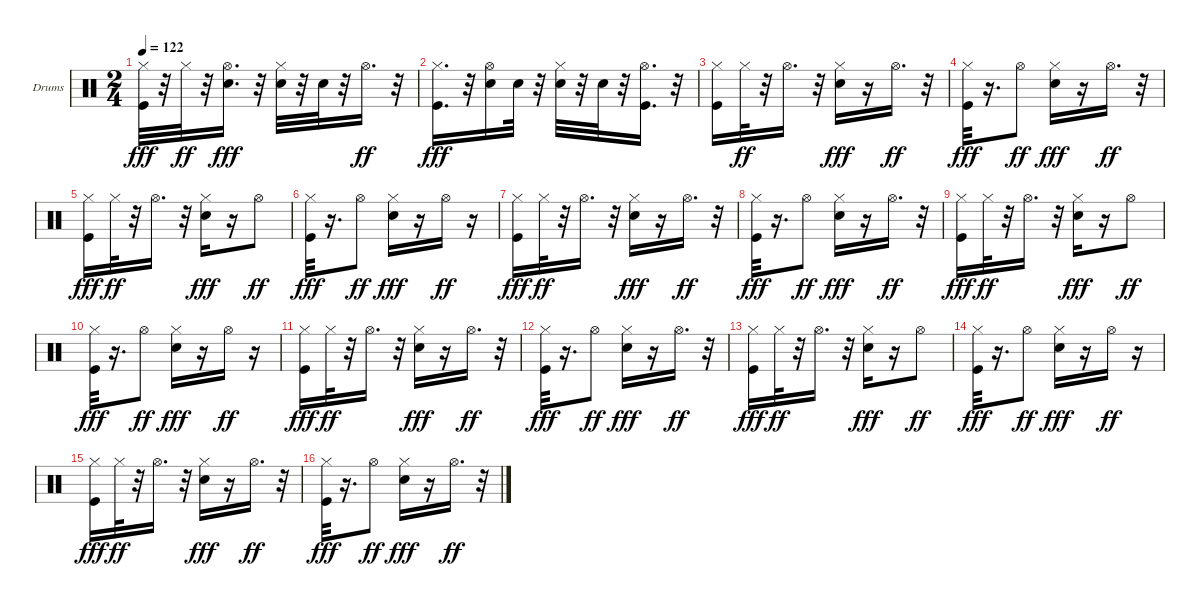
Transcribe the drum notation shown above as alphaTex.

\bracketExtendMode groupsimilarinstruments
\firstSystemTrackNameOrientation horizontal
\otherSystemsTrackNameOrientation horizontal
\track ("Ударные" "Drums") {instrument percussion}
\staff {score}
\articulation defaults
\ts (2 4)
\tempo 122
\clef neutral
\ks c
("Kick (hit)" "Hi-Hat (closed)").32{dy fff} r.32 "Hi-Hat (closed)".32{dy ff} r.32 ("Snare (hit) 2" "Hi-Hat (open)").16{d dy fff} r.32 ("Snare (hit) 2" "Hi-Hat (closed)").32 r.32 "Snare (hit) 2".32 r.32 "Hi-Hat (open)".16{d dy ff} r.32 |
("Kick (hit)" "Hi-Hat (closed)").16{d dy fff} r.32 ("Snare (hit) 2" "Hi-Hat (open)").16 "Snare (hit) 2".32 r.32 ("Snare (hit) 2" "Hi-Hat (closed)").32 r.32 "Snare (hit) 2".32 r.32 ("Kick (hit)" "Hi-Hat (open)").16{d} r.32 |
("Kick (hit)" "Hi-Hat (closed)").16 "Hi-Hat (closed)".32{dy ff} r.32 "Hi-Hat (open)".16{d} r.32 ("Snare (hit) 2" "Hi-Hat (closed)").16{dy fff} r.16 "Hi-Hat (open)".16{d dy ff} r.32 |
("Kick (hit)" "Hi-Hat (closed)").32{dy fff} r.16{d} "Hi-Hat (open)".8{dy ff} ("Snare (hit) 2" "Hi-Hat (closed)").16{dy fff} r.16 "Hi-Hat (open)".16{d dy ff} r.32 |
("Kick (hit)" "Hi-Hat (closed)").16{dy fff} "Hi-Hat (closed)".32{dy ff} r.32 "Hi-Hat (open)".16{d} r.32 ("Snare (hit) 2" "Hi-Hat (closed)").16{dy fff} r.16 "Hi-Hat (open)".8{dy ff} |
("Kick (hit)" "Hi-Hat (closed)").32{dy fff} r.16{d} "Hi-Hat (open)".8{dy ff} ("Snare (hit) 2" "Hi-Hat (closed)").16{dy fff} r.16 "Hi-Hat (open)".16{dy ff} r.16 |
("Kick (hit)" "Hi-Hat (closed)").16{dy fff} "Hi-Hat (closed)".32{dy ff} r.32 "Hi-Hat (open)".16{d} r.32 ("Snare (hit) 2" "Hi-Hat (closed)").16{dy fff} r.16 "Hi-Hat (open)".16{d dy ff} r.32 |
("Kick (hit)" "Hi-Hat (closed)").32{dy fff} r.16{d} "Hi-Hat (open)".8{dy ff} ("Snare (hit) 2" "Hi-Hat (closed)").16{dy fff} r.16 "Hi-Hat (open)".16{d dy ff} r.32 |
("Kick (hit)" "Hi-Hat (closed)").16{dy fff} "Hi-Hat (closed)".32{dy ff} r.32 "Hi-Hat (open)".16{d} r.32 ("Snare (hit) 2" "Hi-Hat (closed)").16{dy fff} r.16 "Hi-Hat (open)".8{dy ff} |
("Kick (hit)" "Hi-Hat (closed)").32{dy fff} r.16{d} "Hi-Hat (open)".8{dy ff} ("Snare (hit) 2" "Hi-Hat (closed)").16{dy fff} r.16 "Hi-Hat (open)".16{dy ff} r.16 |
("Kick (hit)" "Hi-Hat (closed)").16{dy fff} "Hi-Hat (closed)".32{dy ff} r.32 "Hi-Hat (open)".16{d} r.32 ("Snare (hit) 2" "Hi-Hat (closed)").16{dy fff} r.16 "Hi-Hat (open)".16{d dy ff} r.32 |
("Kick (hit)" "Hi-Hat (closed)").32{dy fff} r.16{d} "Hi-Hat (open)".8{dy ff} ("Snare (hit) 2" "Hi-Hat (closed)").16{dy fff} r.16 "Hi-Hat (open)".16{d dy ff} r.32 |
("Kick (hit)" "Hi-Hat (closed)").16{dy fff} "Hi-Hat (closed)".32{dy ff} r.32 "Hi-Hat (open)".16{d} r.32 ("Snare (hit) 2" "Hi-Hat (closed)").16{dy fff} r.16 "Hi-Hat (open)".8{dy ff} |
("Kick (hit)" "Hi-Hat (closed)").32{dy fff} r.16{d} "Hi-Hat (open)".8{dy ff} ("Snare (hit) 2" "Hi-Hat (closed)").16{dy fff} r.16 "Hi-Hat (open)".16{dy ff} r.16 |
("Kick (hit)" "Hi-Hat (closed)").16{dy fff} "Hi-Hat (closed)".32{dy ff} r.32 "Hi-Hat (open)".16{d} r.32 ("Snare (hit) 2" "Hi-Hat (closed)").16{dy fff} r.16 "Hi-Hat (open)".16{d dy ff} r.32 |
("Kick (hit)" "Hi-Hat (closed)").32{dy fff} r.16{d} "Hi-Hat (open)".8{dy ff} ("Snare (hit) 2" "Hi-Hat (closed)").16{dy fff} r.16 "Hi-Hat (open)".16{d dy ff} r.32
